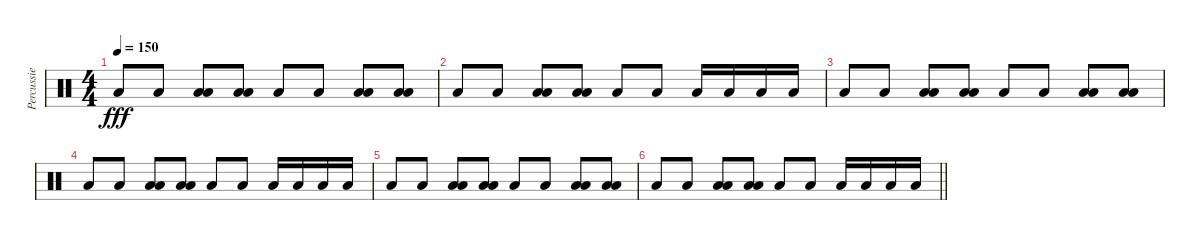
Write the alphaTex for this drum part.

\track ("Percussie" "Percussie") {instrument percussion}
\staff {score}
\articulation defaults
\ts (4 4)
\tempo 150
\clef neutral
\ks c "Low Floor Tom (hit)".8{dy fff} "Low Floor Tom (hit)".8
("Low Tom (hit)" "Low Floor Tom (hit)").8 ("Low Tom (hit)" "Low Floor Tom (hit)").8 "Low Floor Tom (hit)".8 "Low Floor Tom (hit)".8 ("Low Tom (hit)" "Low Floor Tom (hit)").8 ("Low Tom (hit)" "Low Floor Tom (hit)").8 |
"Low Floor Tom (hit)".8 "Low Floor Tom (hit)".8 ("Low Tom (hit)" "Low Floor Tom (hit)").8 ("Low Tom (hit)" "Low Floor Tom (hit)").8 "Low Floor Tom (hit)".8 "Low Floor Tom (hit)".8 "Low Floor Tom (hit)".16 "Low Floor Tom (hit)".16 "Low Floor Tom (hit)".16 "Low Floor Tom (hit)".16 |
"Low Floor Tom (hit)".8 "Low Floor Tom (hit)".8 ("Low Tom (hit)" "Low Floor Tom (hit)").8 ("Low Tom (hit)" "Low Floor Tom (hit)").8 "Low Floor Tom (hit)".8 "Low Floor Tom (hit)".8 ("Low Tom (hit)" "Low Floor Tom (hit)").8 ("Low Tom (hit)" "Low Floor Tom (hit)").8 |
"Low Floor Tom (hit)".8 "Low Floor Tom (hit)".8 ("Low Tom (hit)" "Low Floor Tom (hit)").8 ("Low Tom (hit)" "Low Floor Tom (hit)").8 "Low Floor Tom (hit)".8 "Low Floor Tom (hit)".8 "Low Floor Tom (hit)".16 "Low Floor Tom (hit)".16 "Low Floor Tom (hit)".16 "Low Floor Tom (hit)".16 |
"Low Floor Tom (hit)".8 "Low Floor Tom (hit)".8 ("Low Tom (hit)" "Low Floor Tom (hit)").8 ("Low Tom (hit)" "Low Floor Tom (hit)").8 "Low Floor Tom (hit)".8 "Low Floor Tom (hit)".8 ("Low Tom (hit)" "Low Floor Tom (hit)").8 ("Low Tom (hit)" "Low Floor Tom (hit)").8 |
\barLineRight lightlight "Low Floor Tom (hit)".8 "Low Floor Tom (hit)".8
("Low Tom (hit)" "Low Floor Tom (hit)").8 ("Low Tom (hit)" "Low Floor Tom (hit)").8 "Low Floor Tom (hit)".8 "Low Floor Tom (hit)".8 "Low Floor Tom (hit)".16 "Low Floor Tom (hit)".16 "Low Floor Tom (hit)".16 "Low Floor Tom (hit)".16
